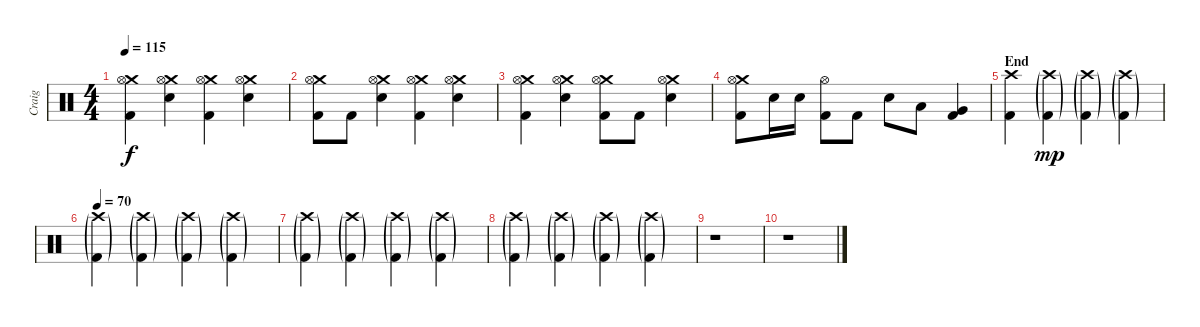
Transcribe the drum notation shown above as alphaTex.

\track ("Craig" "Craig") {instrument percussion}
\staff {score}
\articulation defaults
\ts (4 4)
\tempo 115
\clef neutral
\ks c
("Crash medium (hit)" "Hi-Hat (open)" "Kick (hit) 2").4{dy f} ("Crash medium (hit)" "Hi-Hat (open)" "Electric Snare (hit)").4 ("Crash medium (hit)" "Hi-Hat (open)" "Kick (hit) 2").4 ("Crash medium (hit)" "Hi-Hat (open)" "Electric Snare (hit)").4 |
("Crash medium (hit)" "Hi-Hat (open)" "Kick (hit) 2").8 "Kick (hit) 2".8 ("Crash medium (hit)" "Hi-Hat (open)" "Electric Snare (hit)").4 ("Crash medium (hit)" "Hi-Hat (open)" "Kick (hit) 2").4 ("Crash medium (hit)" "Hi-Hat (open)" "Electric Snare (hit)").4 |
("Crash medium (hit)" "Hi-Hat (open)" "Kick (hit) 2").4 ("Crash medium (hit)" "Hi-Hat (open)" "Electric Snare (hit)").4 ("Crash medium (hit)" "Hi-Hat (open)" "Kick (hit) 2").8 "Kick (hit) 2".8 ("Crash medium (hit)" "Hi-Hat (open)" "Electric Snare (hit)").4 |
("Crash medium (hit)" "Hi-Hat (open)" "Kick (hit) 2").8 "Electric Snare (hit)".16 "Electric Snare (hit)".16 ("Hi-Hat (open)" "Kick (hit) 2").8 "Kick (hit) 2".8 "Electric Snare (hit)".8 "Low Tom (hit)".8 ("Very Low Tom (hit)" "Kick (hit) 2").4 |
\section ("" "End")
("Crash high (hit)" "Kick (hit) 2").4 ("Crash high (hit)"{g} "Kick (hit) 2"{g}).4{dy mp} ("Crash high (hit)"{g} "Kick (hit) 2"{g}).4 ("Crash high (hit)"{g} "Kick (hit) 2"{g}).4 |
\tempo 70
("Crash high (hit)"{g} "Kick (hit) 2"{g}).4 ("Crash high (hit)"{g} "Kick (hit) 2"{g}).4 ("Crash high (hit)"{g} "Kick (hit) 2"{g}).4 ("Crash high (hit)"{g} "Kick (hit) 2"{g}).4 |
("Crash high (hit)"{g} "Kick (hit) 2"{g}).4{volume 12} ("Crash high (hit)"{g} "Kick (hit) 2"{g}).4{volume 9} ("Crash high (hit)"{g} "Kick (hit) 2"{g}).4{volume 7} ("Crash high (hit)"{g} "Kick (hit) 2"{g}).4{volume 6} |
("Crash high (hit)"{g} "Kick (hit) 2"{g}).4{volume 5} ("Crash high (hit)"{g} "Kick (hit) 2"{g}).4{volume 5} ("Crash high (hit)"{g} "Kick (hit) 2"{g}).4{volume 4} ("Crash high (hit)"{g} "Kick (hit) 2"{g}).4{volume 3} |
r.1 |
r.1
